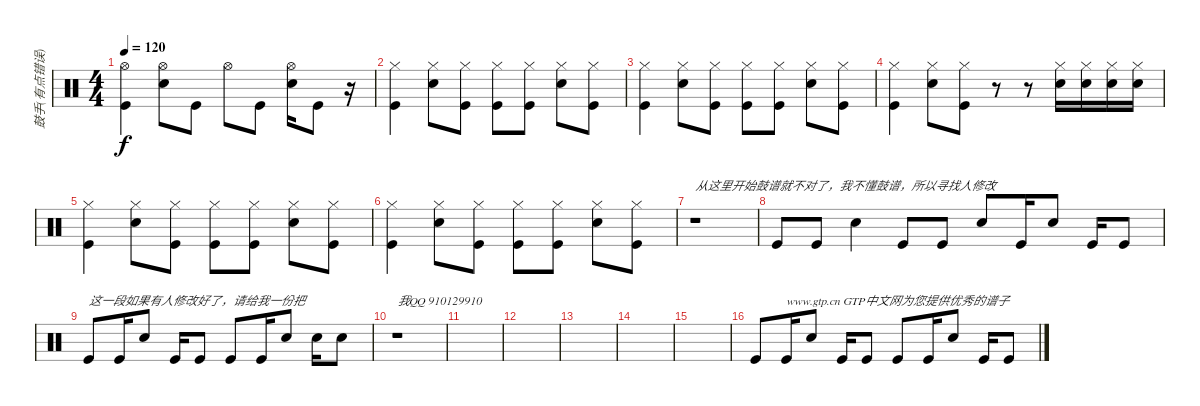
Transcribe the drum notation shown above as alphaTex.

\track ("鼓手(有点错误)" "鼓手(有点错误)") {instrument percussion}
\staff {score}
\articulation defaults
\ts (4 4)
\tempo 120
\clef neutral
\ks c
("Hi-Hat (open)" "Kick (hit)").4{dy f} ("Hi-Hat (open)" "Electric Snare (hit)").8 "Kick (hit)".8 "Hi-Hat (open)".8 "Kick (hit)".8 ("Hi-Hat (open)" "Electric Snare (hit)").16 "Kick (hit)".8 r.16 |
("Hi-Hat (closed)" "Kick (hit)").4 ("Hi-Hat (closed)" "Electric Snare (hit)").8 ("Hi-Hat (closed)" "Kick (hit)").8 ("Hi-Hat (closed)" "Kick (hit)").8 ("Hi-Hat (closed)" "Kick (hit)").8 ("Hi-Hat (closed)" "Electric Snare (hit)").8 ("Hi-Hat (closed)" "Kick (hit)").8 |
("Hi-Hat (closed)" "Kick (hit)").4 ("Hi-Hat (closed)" "Electric Snare (hit)").8 ("Hi-Hat (closed)" "Kick (hit)").8 ("Hi-Hat (closed)" "Kick (hit)").8 ("Hi-Hat (closed)" "Kick (hit)").8 ("Hi-Hat (closed)" "Electric Snare (hit)").8 ("Hi-Hat (closed)" "Kick (hit)").8 |
("Hi-Hat (closed)" "Kick (hit)").4 ("Hi-Hat (closed)" "Electric Snare (hit)").8 ("Hi-Hat (closed)" "Kick (hit)").8 r.8 r.8 ("Hi-Hat (closed)" "Electric Snare (hit)").16 ("Hi-Hat (closed)" "Electric Snare (hit)").16 ("Hi-Hat (closed)" "Electric Snare (hit)").16 ("Hi-Hat (closed)" "Electric Snare (hit)").16 |
("Hi-Hat (closed)" "Kick (hit)").4 ("Hi-Hat (closed)" "Electric Snare (hit)").8 ("Hi-Hat (closed)" "Kick (hit)").8 ("Hi-Hat (closed)" "Kick (hit)").8 ("Hi-Hat (closed)" "Kick (hit)").8 ("Hi-Hat (closed)" "Electric Snare (hit)").8 ("Hi-Hat (closed)" "Kick (hit)").8 |
("Hi-Hat (closed)" "Kick (hit)").4 ("Hi-Hat (closed)" "Electric Snare (hit)").8 ("Hi-Hat (closed)" "Kick (hit)").8 ("Hi-Hat (closed)" "Kick (hit)").8 ("Hi-Hat (closed)" "Kick (hit)").8 ("Hi-Hat (closed)" "Electric Snare (hit)").8 ("Hi-Hat (closed)" "Kick (hit)").8 |
r.1{txt "从这里开始鼓谱就不对了，我不懂鼓谱，所以寻找人修改"} |
"Kick (hit)".8 "Kick (hit)".8 "Electric Snare (hit)".4 "Kick (hit)".8 "Kick (hit)".8 "Electric Snare (hit)".8 "Kick (hit)".16 "Electric Snare (hit)".8 "Kick (hit)".16 "Kick (hit)".8 |
"Kick (hit)".8{txt "这一段如果有人修改好了，请给我一份把"} "Kick (hit)".16 "Electric Snare (hit)".8 "Kick (hit)".16 "Kick (hit)".8 "Kick (hit)".8 "Kick (hit)".16 "Electric Snare (hit)".8 "Electric Snare (hit)".16 "Electric Snare (hit)".8 |
r.1{txt "我QQ 910129910"} |
|
|
|
|
|
"Kick (hit)".8 "Kick (hit)".16{txt "www.gtp.cn GTP中文网为您提供优秀的谱子"} "Electric Snare (hit)".8 "Kick (hit)".16 "Kick (hit)".8 "Kick (hit)".8 "Kick (hit)".16 "Electric Snare (hit)".8 "Kick (hit)".16 "Kick (hit)".8
